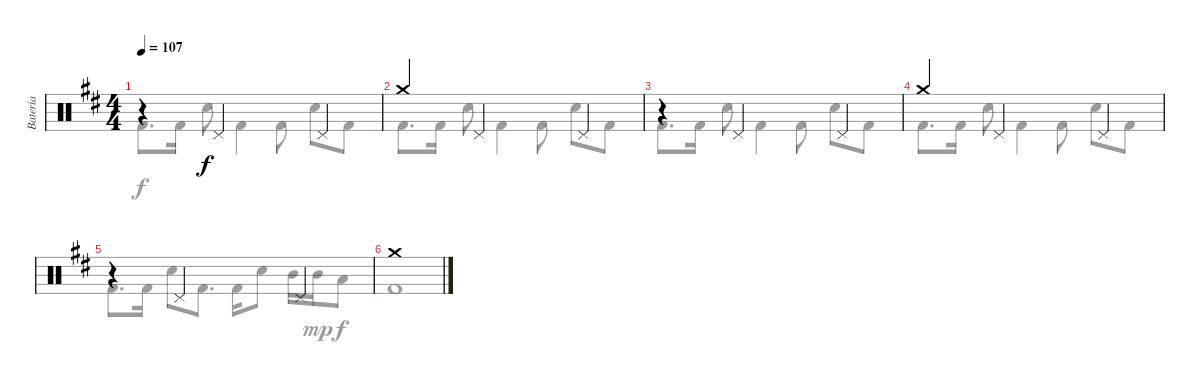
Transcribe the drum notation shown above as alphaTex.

\track ("Batería" "Batería") {instrument percussion}
\staff {score}
\articulation defaults
\voice
\ts (4 4)
\tempo 107
\clef neutral
\ks d
r.4{dy f} "Pedal Hi-Hat (hit)".2 "Pedal Hi-Hat (hit)".4 |
"Crash medium (hit)".4 "Pedal Hi-Hat (hit)".2 "Pedal Hi-Hat (hit)".4 |
r.4 "Pedal Hi-Hat (hit)".2 "Pedal Hi-Hat (hit)".4 |
"Crash medium (hit)".4 "Pedal Hi-Hat (hit)".2 "Pedal Hi-Hat (hit)".4 |
r.4 "Pedal Hi-Hat (hit)".2 "Pedal Hi-Hat (hit)".4 |
"Crash medium (hit)".1 |
|
\voice
\clef neutral
\ottava regular
\simile none
\ks d "Kick (hit) 2".8{d dy f} "Kick (hit) 2".16 "Electric Snare (hit)".8 "Kick (hit) 2".4 "Kick (hit) 2".8 "Electric Snare (hit)".8 "Kick (hit) 2".8
|
"Kick (hit) 2".8{d} "Kick (hit) 2".16 "Electric Snare (hit)".8 "Kick (hit) 2".4 "Kick (hit) 2".8 "Electric Snare (hit)".8 "Kick (hit) 2".8 |
"Kick (hit) 2".8{d} "Kick (hit) 2".16 "Electric Snare (hit)".8 "Kick (hit) 2".4 "Kick (hit) 2".8 "Electric Snare (hit)".8 "Kick (hit) 2".8 |
"Kick (hit) 2".8{d} "Kick (hit) 2".16 "Electric Snare (hit)".8 "Kick (hit) 2".4 "Kick (hit) 2".8 "Electric Snare (hit)".8 "Kick (hit) 2".8 |
"Kick (hit) 2".8{d} "Kick (hit) 2".16 "Electric Snare (hit)".8 "Kick (hit) 2".8{d} "Kick (hit) 2".16 "Electric Snare (hit)".8 "Mid Tom (hit)".16 "Mid Tom (hit)".16{dy mp} "Low Tom (hit)".8{dy f} |
"Kick (hit) 2".1 |
|
